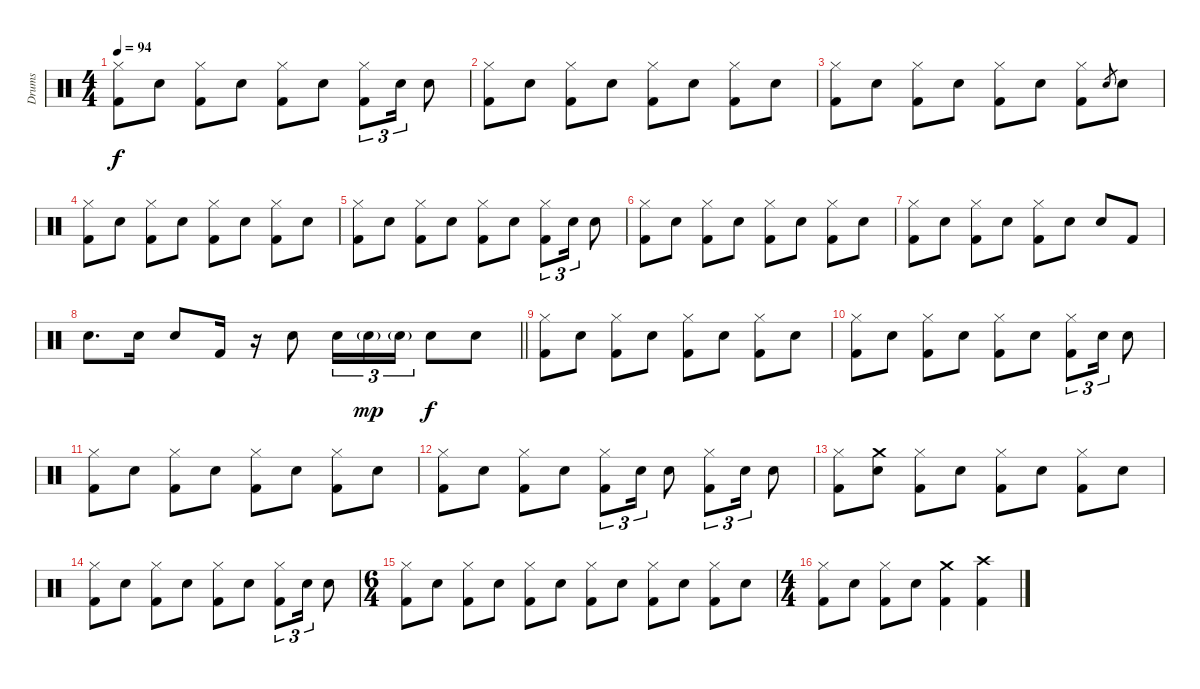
\track ("Drums" "Drums") {instrument percussion}
\staff {score}
\articulation defaults
\ts (4 4)
\tempo 94
\clef neutral
\ks c
("Hi-Hat (closed)" "Kick (hit) 2").8{dy f} "Electric Snare (hit)".8 ("Hi-Hat (closed)" "Kick (hit) 2").8 "Electric Snare (hit)".8 ("Hi-Hat (closed)" "Kick (hit) 2").8 "Electric Snare (hit)".8 ("Hi-Hat (closed)" "Kick (hit) 2").8{tu (3 2)} "Electric Snare (hit)".16{tu (3 2)} "Electric Snare (hit)".8 |
("Hi-Hat (closed)" "Kick (hit) 2").8 "Electric Snare (hit)".8 ("Hi-Hat (closed)" "Kick (hit) 2").8 "Electric Snare (hit)".8 ("Hi-Hat (closed)" "Kick (hit) 2").8 "Electric Snare (hit)".8 ("Hi-Hat (closed)" "Kick (hit) 2").8 "Electric Snare (hit)".8 |
("Hi-Hat (closed)" "Kick (hit) 2").8 "Electric Snare (hit)".8 ("Hi-Hat (closed)" "Kick (hit) 2").8 "Electric Snare (hit)".8 ("Hi-Hat (closed)" "Kick (hit) 2").8 "Electric Snare (hit)".8 ("Hi-Hat (closed)" "Kick (hit) 2").8 "Electric Snare (hit)".8{gr} "Electric Snare (hit)".8 |
("Hi-Hat (closed)" "Kick (hit) 2").8 "Electric Snare (hit)".8 ("Hi-Hat (closed)" "Kick (hit) 2").8 "Electric Snare (hit)".8 ("Hi-Hat (closed)" "Kick (hit) 2").8 "Electric Snare (hit)".8 ("Hi-Hat (closed)" "Kick (hit) 2").8 "Electric Snare (hit)".8 |
("Hi-Hat (closed)" "Kick (hit) 2").8 "Electric Snare (hit)".8 ("Hi-Hat (closed)" "Kick (hit) 2").8 "Electric Snare (hit)".8 ("Hi-Hat (closed)" "Kick (hit) 2").8 "Electric Snare (hit)".8 ("Hi-Hat (closed)" "Kick (hit) 2").8{tu (3 2)} "Electric Snare (hit)".16{tu (3 2)} "Electric Snare (hit)".8 |
("Hi-Hat (closed)" "Kick (hit) 2").8 "Electric Snare (hit)".8 ("Hi-Hat (closed)" "Kick (hit) 2").8 "Electric Snare (hit)".8 ("Hi-Hat (closed)" "Kick (hit) 2").8 "Electric Snare (hit)".8 ("Hi-Hat (closed)" "Kick (hit) 2").8 "Electric Snare (hit)".8 |
("Hi-Hat (closed)" "Kick (hit) 2").8 "Electric Snare (hit)".8 ("Hi-Hat (closed)" "Kick (hit) 2").8 "Electric Snare (hit)".8 ("Hi-Hat (closed)" "Kick (hit) 2").8 "Electric Snare (hit)".8 "Electric Snare (hit)".8 "Kick (hit) 2".8 |
\barLineRight lightlight "Electric Snare (hit)".8{d} "Electric Snare (hit)".16 "Electric Snare (hit)".8 "Kick (hit) 2".16
r.16 "Electric Snare (hit)".8 "Electric Snare (hit)".16{tu (3 2)} "Electric Snare (hit)"{g}.16{tu (3 2) dy mp} "Electric Snare (hit)"{g}.16{tu (3 2)} "Electric Snare (hit)".8{dy f} "Electric Snare (hit)".8 |
("Hi-Hat (closed)" "Kick (hit) 2").8 "Electric Snare (hit)".8 ("Hi-Hat (closed)" "Kick (hit) 2").8 "Electric Snare (hit)".8 ("Hi-Hat (closed)" "Kick (hit) 2").8 "Electric Snare (hit)".8 ("Hi-Hat (closed)" "Kick (hit) 2").8 "Electric Snare (hit)".8 |
("Hi-Hat (closed)" "Kick (hit) 2").8 "Electric Snare (hit)".8 ("Hi-Hat (closed)" "Kick (hit) 2").8 "Electric Snare (hit)".8 ("Hi-Hat (closed)" "Kick (hit) 2").8 "Electric Snare (hit)".8 ("Hi-Hat (closed)" "Kick (hit) 2").8{tu (3 2)} "Electric Snare (hit)".16{tu (3 2)} "Electric Snare (hit)".8 |
("Hi-Hat (closed)" "Kick (hit) 2").8 "Electric Snare (hit)".8 ("Hi-Hat (closed)" "Kick (hit) 2").8 "Electric Snare (hit)".8 ("Hi-Hat (closed)" "Kick (hit) 2").8 "Electric Snare (hit)".8 ("Hi-Hat (closed)" "Kick (hit) 2").8 "Electric Snare (hit)".8 |
("Hi-Hat (closed)" "Kick (hit) 2").8 "Electric Snare (hit)".8 ("Hi-Hat (closed)" "Kick (hit) 2").8 "Electric Snare (hit)".8 ("Hi-Hat (closed)" "Kick (hit) 2").8{tu (3 2)} "Electric Snare (hit)".16{tu (3 2)} "Electric Snare (hit)".8 ("Hi-Hat (closed)" "Kick (hit) 2").8{tu (3 2)} "Electric Snare (hit)".16{tu (3 2)} "Electric Snare (hit)".8 |
("Hi-Hat (closed)" "Kick (hit) 2").8 ("Crash medium (hit)" "Electric Snare (hit)").8 ("Hi-Hat (closed)" "Kick (hit) 2").8 "Electric Snare (hit)".8 ("Hi-Hat (closed)" "Kick (hit) 2").8 "Electric Snare (hit)".8 ("Hi-Hat (closed)" "Kick (hit) 2").8 "Electric Snare (hit)".8 |
("Hi-Hat (closed)" "Kick (hit) 2").8 "Electric Snare (hit)".8 ("Hi-Hat (closed)" "Kick (hit) 2").8 "Electric Snare (hit)".8 ("Hi-Hat (closed)" "Kick (hit) 2").8 "Electric Snare (hit)".8 ("Hi-Hat (closed)" "Kick (hit) 2").8{tu (3 2)} "Electric Snare (hit)".16{tu (3 2)} "Electric Snare (hit)".8 |
\ts (6 4)
("Hi-Hat (closed)" "Kick (hit) 2").8 "Electric Snare (hit)".8 ("Hi-Hat (closed)" "Kick (hit) 2").8 "Electric Snare (hit)".8 ("Hi-Hat (closed)" "Kick (hit) 2").8 "Electric Snare (hit)".8 ("Hi-Hat (closed)" "Kick (hit) 2").8 "Electric Snare (hit)".8 ("Hi-Hat (closed)" "Kick (hit) 2").8 "Electric Snare (hit)".8 ("Hi-Hat (closed)" "Kick (hit) 2").8 "Electric Snare (hit)".8 |
\ts (4 4)
("Hi-Hat (closed)" "Kick (hit) 2").8 "Electric Snare (hit)".8 ("Hi-Hat (closed)" "Kick (hit) 2").8 "Electric Snare (hit)".8 ("Crash medium (hit)" "Kick (hit) 2").4 ("Crash high (hit)" "Kick (hit) 2").4
